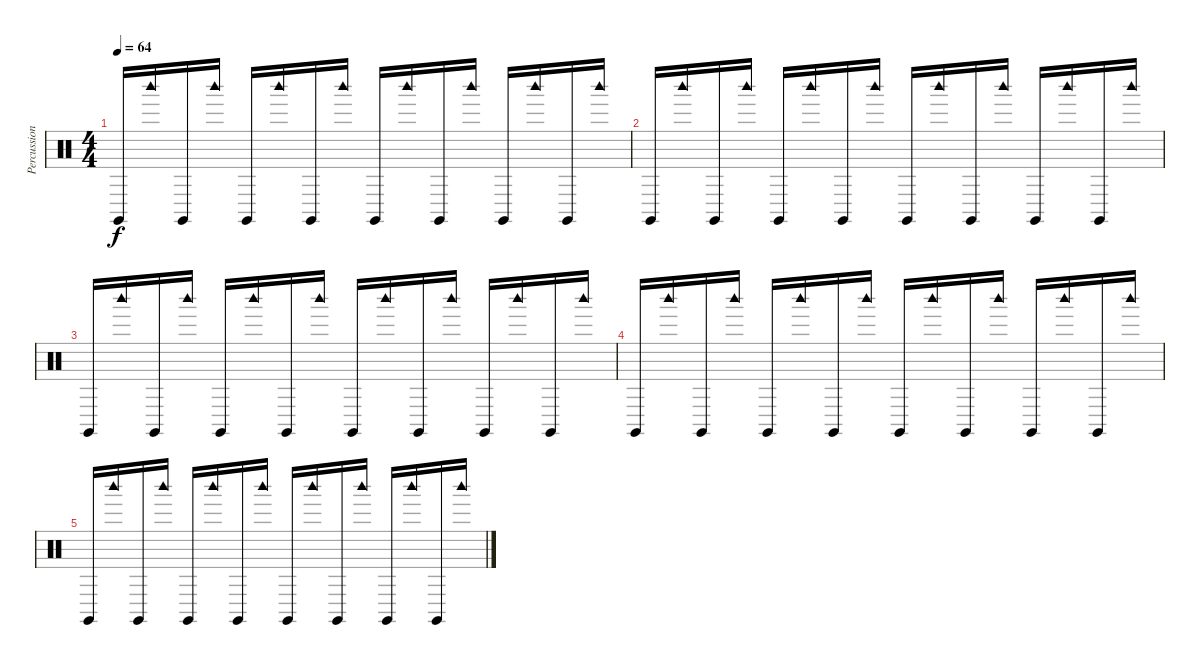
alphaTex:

\track ("Percussions" "Percussion") {instrument percussion}
\staff {score}
\articulation defaults
\ts (4 4)
\tempo 64
\clef neutral
\ks c "Claves (hit)".16{dy f} "Woodblock high (hit)".16 "Claves (hit)".16 "Woodblock high (hit)".16 "Claves (hit)".16 "Woodblock high (hit)".16 "Claves (hit)".16 "Woodblock high (hit)".16 "Claves (hit)".16 "Woodblock high (hit)".16 "Claves (hit)".16 "Woodblock high (hit)".16 "Claves (hit)".16 "Woodblock high (hit)".16 "Claves (hit)".16 "Woodblock high (hit)".16
|
"Claves (hit)".16 "Woodblock high (hit)".16 "Claves (hit)".16 "Woodblock high (hit)".16 "Claves (hit)".16 "Woodblock high (hit)".16 "Claves (hit)".16 "Woodblock high (hit)".16 "Claves (hit)".16 "Woodblock high (hit)".16 "Claves (hit)".16 "Woodblock high (hit)".16 "Claves (hit)".16 "Woodblock high (hit)".16 "Claves (hit)".16 "Woodblock high (hit)".16 |
"Claves (hit)".16 "Woodblock high (hit)".16 "Claves (hit)".16 "Woodblock high (hit)".16 "Claves (hit)".16 "Woodblock high (hit)".16 "Claves (hit)".16 "Woodblock high (hit)".16 "Claves (hit)".16 "Woodblock high (hit)".16 "Claves (hit)".16 "Woodblock high (hit)".16 "Claves (hit)".16 "Woodblock high (hit)".16 "Claves (hit)".16 "Woodblock high (hit)".16 |
"Claves (hit)".16 "Woodblock high (hit)".16 "Claves (hit)".16 "Woodblock high (hit)".16 "Claves (hit)".16 "Woodblock high (hit)".16 "Claves (hit)".16 "Woodblock high (hit)".16 "Claves (hit)".16 "Woodblock high (hit)".16 "Claves (hit)".16 "Woodblock high (hit)".16 "Claves (hit)".16 "Woodblock high (hit)".16 "Claves (hit)".16 "Woodblock high (hit)".16 |
"Claves (hit)".16 "Woodblock high (hit)".16 "Claves (hit)".16 "Woodblock high (hit)".16 "Claves (hit)".16 "Woodblock high (hit)".16 "Claves (hit)".16 "Woodblock high (hit)".16 "Claves (hit)".16 "Woodblock high (hit)".16 "Claves (hit)".16 "Woodblock high (hit)".16 "Claves (hit)".16 "Woodblock high (hit)".16 "Claves (hit)".16 "Woodblock high (hit)".16
